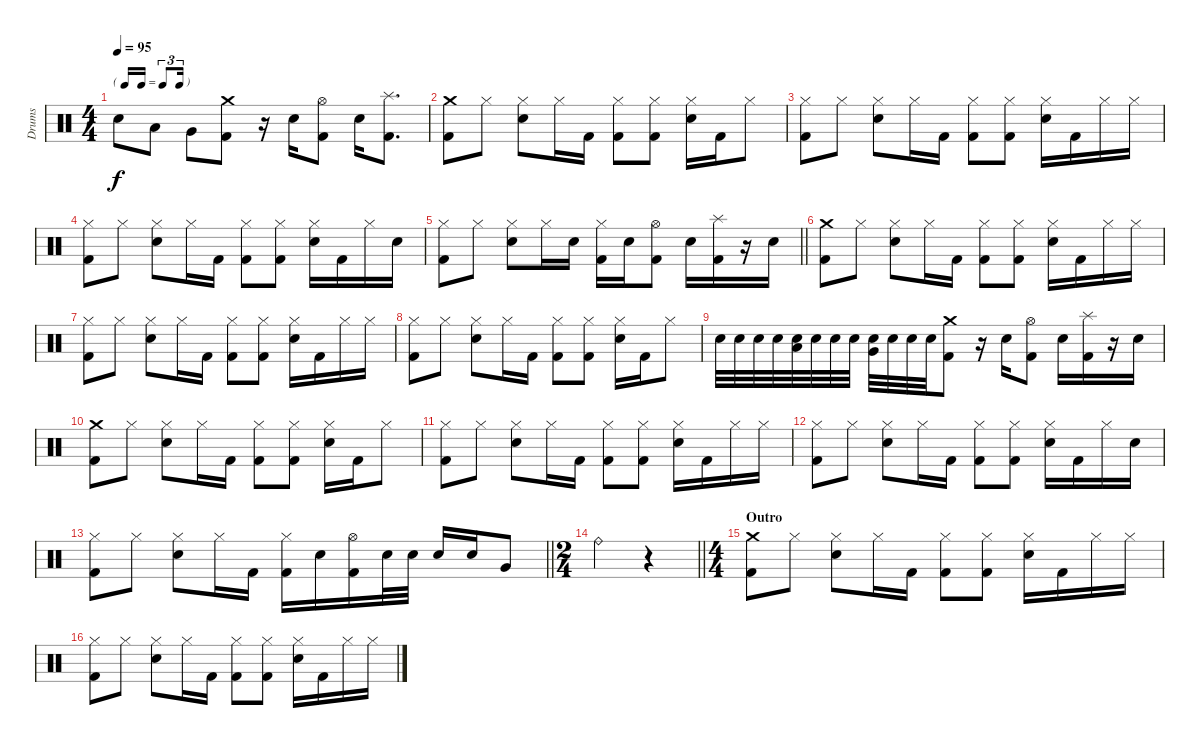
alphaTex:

\track ("Drums" "Drums") {instrument percussion}
\staff {score}
\articulation defaults
\ts (4 4)
\tf triplet16th
\tempo 95
\clef neutral
\ks c "Snare (hit) 2".8{dy f} "Low Tom (hit)".8 "Very Low Tom (hit)".8
("Crash medium (hit)" "Kick (hit) 2").8 r.16 "Snare (hit) 2".16 ("Hi-Hat (open)" "Kick (hit) 2").8 "Snare (hit) 2".16 ("Splash (hit)" "Kick (hit) 2").8{d} |
("Crash medium (hit)" "Kick (hit) 2").8 "Hi-Hat (closed)".8 ("Hi-Hat (closed)" "Snare (hit) 2").8 "Hi-Hat (closed)".16 "Kick (hit) 2".16 ("Hi-Hat (closed)" "Kick (hit) 2").8 ("Hi-Hat (closed)" "Kick (hit) 2").8 ("Hi-Hat (closed)" "Snare (hit) 2").16 "Kick (hit) 2".16 "Hi-Hat (closed)".8 |
("Hi-Hat (closed)" "Kick (hit) 2").8 "Hi-Hat (closed)".8 ("Hi-Hat (closed)" "Snare (hit) 2").8 "Hi-Hat (closed)".16 "Kick (hit) 2".16 ("Hi-Hat (closed)" "Kick (hit) 2").8 ("Hi-Hat (closed)" "Kick (hit) 2").8 ("Hi-Hat (closed)" "Snare (hit) 2").16 "Kick (hit) 2".16 "Hi-Hat (closed)".16 "Hi-Hat (closed)".16 |
("Hi-Hat (closed)" "Kick (hit) 2").8 "Hi-Hat (closed)".8 ("Hi-Hat (closed)" "Snare (hit) 2").8 "Hi-Hat (closed)".16 "Kick (hit) 2".16 ("Hi-Hat (closed)" "Kick (hit) 2").8 ("Hi-Hat (closed)" "Kick (hit) 2").8 ("Hi-Hat (closed)" "Snare (hit) 2").16 "Kick (hit) 2".16 "Hi-Hat (closed)".16 "Snare (hit) 2".16 |
\barLineRight lightlight
("Hi-Hat (closed)" "Kick (hit) 2").8 "Hi-Hat (closed)".8 ("Hi-Hat (closed)" "Snare (hit) 2").8 "Hi-Hat (closed)".16 "Snare (hit) 2".16 ("Hi-Hat (closed)" "Kick (hit) 2").16 "Snare (hit) 2".16 ("Hi-Hat (open)" "Kick (hit) 2").8 "Snare (hit) 2".16 ("Splash (hit)" "Kick (hit) 2").16 r.16 "Snare (hit) 2".16 |
("Crash medium (hit)" "Kick (hit) 2").8 "Hi-Hat (closed)".8 ("Hi-Hat (closed)" "Snare (hit) 2").8 "Hi-Hat (closed)".16 "Kick (hit) 2".16 ("Hi-Hat (closed)" "Kick (hit) 2").8 ("Hi-Hat (closed)" "Kick (hit) 2").8 ("Hi-Hat (closed)" "Snare (hit) 2").16 "Kick (hit) 2".16 "Hi-Hat (closed)".16 "Hi-Hat (closed)".16 |
("Hi-Hat (closed)" "Kick (hit) 2").8 "Hi-Hat (closed)".8 ("Hi-Hat (closed)" "Snare (hit) 2").8 "Hi-Hat (closed)".16 "Kick (hit) 2".16 ("Hi-Hat (closed)" "Kick (hit) 2").8 ("Hi-Hat (closed)" "Kick (hit) 2").8 ("Hi-Hat (closed)" "Snare (hit) 2").16 "Kick (hit) 2".16 "Hi-Hat (closed)".16 "Hi-Hat (closed)".16 |
("Hi-Hat (closed)" "Kick (hit) 2").8 "Hi-Hat (closed)".8 ("Hi-Hat (closed)" "Snare (hit) 2").8 "Hi-Hat (closed)".16 "Kick (hit) 2".16 ("Hi-Hat (closed)" "Kick (hit) 2").8 ("Hi-Hat (closed)" "Kick (hit) 2").8 ("Hi-Hat (closed)" "Snare (hit) 2").16 "Kick (hit) 2".16 "Hi-Hat (closed)".8 |
"Snare (hit) 2".32 "Snare (hit) 2".32 "Snare (hit) 2".32 "Snare (hit) 2".32 ("Snare (hit) 2" "Low Tom (hit)").32 "Snare (hit) 2".32 "Snare (hit) 2".32 "Snare (hit) 2".32 ("Snare (hit) 2" "Very Low Tom (hit)").32 "Snare (hit) 2".32 "Snare (hit) 2".32 "Snare (hit) 2".32 ("Crash medium (hit)" "Kick (hit) 2").8 r.16 "Snare (hit) 2".16 ("Hi-Hat (open)" "Kick (hit) 2").8 "Snare (hit) 2".16 ("Splash (hit)" "Kick (hit) 2").16 r.16 "Snare (hit) 2".16 |
("Crash medium (hit)" "Kick (hit) 2").8 "Hi-Hat (closed)".8 ("Hi-Hat (closed)" "Snare (hit) 2").8 "Hi-Hat (closed)".16 "Kick (hit) 2".16 ("Hi-Hat (closed)" "Kick (hit) 2").8 ("Hi-Hat (closed)" "Kick (hit) 2").8 ("Hi-Hat (closed)" "Snare (hit) 2").16 "Kick (hit) 2".16 "Hi-Hat (closed)".8 |
("Hi-Hat (closed)" "Kick (hit) 2").8 "Hi-Hat (closed)".8 ("Hi-Hat (closed)" "Snare (hit) 2").8 "Hi-Hat (closed)".16 "Kick (hit) 2".16 ("Hi-Hat (closed)" "Kick (hit) 2").8 ("Hi-Hat (closed)" "Kick (hit) 2").8 ("Hi-Hat (closed)" "Snare (hit) 2").16 "Kick (hit) 2".16 "Hi-Hat (closed)".16 "Hi-Hat (closed)".16 |
("Hi-Hat (closed)" "Kick (hit) 2").8 "Hi-Hat (closed)".8 ("Hi-Hat (closed)" "Snare (hit) 2").8 "Hi-Hat (closed)".16 "Kick (hit) 2".16 ("Hi-Hat (closed)" "Kick (hit) 2").8 ("Hi-Hat (closed)" "Kick (hit) 2").8 ("Hi-Hat (closed)" "Snare (hit) 2").16 "Kick (hit) 2".16 "Hi-Hat (closed)".16 "Snare (hit) 2".16 |
\barLineRight lightlight
("Hi-Hat (closed)" "Kick (hit) 2").8 "Hi-Hat (closed)".8 ("Hi-Hat (closed)" "Snare (hit) 2").8 "Hi-Hat (closed)".16 "Kick (hit) 2".16 ("Hi-Hat (closed)" "Kick (hit) 2").16 "Snare (hit) 2".16 ("Hi-Hat (open)" "Kick (hit) 2").16 "Snare (hit) 2".32 "Snare (hit) 2".32 "Snare (hit) 2".16 "Snare (hit) 2".16 "Very Low Tom (hit)".8 |
\ts (2 4)
\barLineRight lightlight "Ride (bell)".4
r.4 |
\ts (4 4)
\section ("" "Outro")
("Crash medium (hit)" "Kick (hit) 2").8 "Hi-Hat (closed)".8 ("Hi-Hat (closed)" "Snare (hit) 2").8 "Hi-Hat (closed)".16 "Kick (hit) 2".16 ("Hi-Hat (closed)" "Kick (hit) 2").8 ("Hi-Hat (closed)" "Kick (hit) 2").8 ("Hi-Hat (closed)" "Snare (hit) 2").16 "Kick (hit) 2".16 "Hi-Hat (closed)".16 "Hi-Hat (closed)".16 |
("Hi-Hat (closed)" "Kick (hit) 2").8 "Hi-Hat (closed)".8 ("Hi-Hat (closed)" "Snare (hit) 2").8 "Hi-Hat (closed)".16 "Kick (hit) 2".16 ("Hi-Hat (closed)" "Kick (hit) 2").8 ("Hi-Hat (closed)" "Kick (hit) 2").8 ("Hi-Hat (closed)" "Snare (hit) 2").16 "Kick (hit) 2".16 "Hi-Hat (closed)".16 "Hi-Hat (closed)".16
